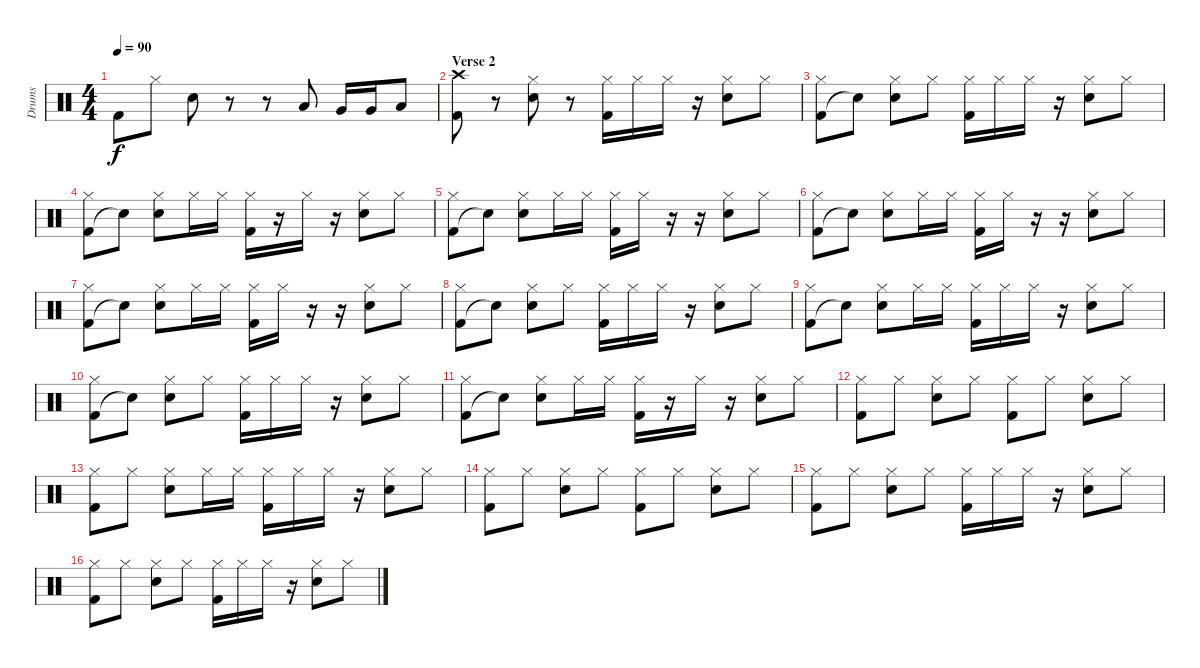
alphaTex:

\track ("Drums" "Drums") {instrument percussion}
\staff {score}
\articulation defaults
\ts (4 4)
\tempo 90
\clef neutral
\ks c "Kick (hit) 2".8{dy f} "Hi-Hat (closed)".8 "Snare (hit) 2".8
r.8 r.8 "Low Tom (hit)".8 "Very Low Tom (hit)".16 "Very Low Tom (hit)".16 "Low Floor Tom (hit)".8 |
\section ("" "Verse 2")
("Kick (hit) 2" "Crash high (hit)").8 r.8 ("Snare (hit) 2" "Hi-Hat (closed)").8 r.8 ("Kick (hit) 2" "Hi-Hat (closed)").16 "Hi-Hat (closed)".16 "Hi-Hat (closed)".16 r.16 ("Snare (hit) 2" "Hi-Hat (closed)").8 "Hi-Hat (closed)".8 |
("Kick (hit) 2" "Hi-Hat (closed)").8 "Snare (hit)"{t}.8 ("Snare (hit) 2" "Hi-Hat (closed)").8 "Hi-Hat (closed)".8 ("Kick (hit) 2" "Hi-Hat (closed)").16 "Hi-Hat (closed)".16 "Hi-Hat (closed)".16 r.16 ("Snare (hit) 2" "Hi-Hat (closed)").8 "Hi-Hat (closed)".8 |
("Kick (hit) 2" "Hi-Hat (closed)").8 "Snare (hit)"{t}.8 ("Snare (hit) 2" "Hi-Hat (closed)").8 "Hi-Hat (closed)".16 "Hi-Hat (closed)".16 ("Kick (hit) 2" "Hi-Hat (closed)").16 r.16 "Hi-Hat (closed)".16 r.16 ("Snare (hit) 2" "Hi-Hat (closed)").8 "Hi-Hat (closed)".8 |
("Kick (hit) 2" "Hi-Hat (closed)").8 "Snare (hit)"{t}.8 ("Snare (hit) 2" "Hi-Hat (closed)").8 "Hi-Hat (closed)".16 "Hi-Hat (closed)".16 ("Kick (hit) 2" "Hi-Hat (closed)").16 "Hi-Hat (closed)".16 r.16 r.16 ("Snare (hit) 2" "Hi-Hat (closed)").8 "Hi-Hat (closed)".8 |
("Kick (hit) 2" "Hi-Hat (closed)").8 "Snare (hit)"{t}.8 ("Snare (hit) 2" "Hi-Hat (closed)").8 "Hi-Hat (closed)".16 "Hi-Hat (closed)".16 ("Kick (hit) 2" "Hi-Hat (closed)").16 "Hi-Hat (closed)".16 r.16 r.16 ("Snare (hit) 2" "Hi-Hat (closed)").8 "Hi-Hat (closed)".8 |
("Kick (hit) 2" "Hi-Hat (closed)").8 "Snare (hit)"{t}.8 ("Snare (hit) 2" "Hi-Hat (closed)").8 "Hi-Hat (closed)".16 "Hi-Hat (closed)".16 ("Kick (hit) 2" "Hi-Hat (closed)").16 "Hi-Hat (closed)".16 r.16 r.16 ("Snare (hit) 2" "Hi-Hat (closed)").8 "Hi-Hat (closed)".8 |
("Kick (hit) 2" "Hi-Hat (closed)").8 "Snare (hit)"{t}.8 ("Snare (hit) 2" "Hi-Hat (closed)").8 "Hi-Hat (closed)".8 ("Kick (hit) 2" "Hi-Hat (closed)").16 "Hi-Hat (closed)".16 "Hi-Hat (closed)".16 r.16 ("Snare (hit) 2" "Hi-Hat (closed)").8 "Hi-Hat (closed)".8 |
("Kick (hit) 2" "Hi-Hat (closed)").8 "Snare (hit)"{t}.8 ("Snare (hit) 2" "Hi-Hat (closed)").8 "Hi-Hat (closed)".16 "Hi-Hat (closed)".16 ("Kick (hit) 2" "Hi-Hat (closed)").16 "Hi-Hat (closed)".16 "Hi-Hat (closed)".16 r.16 ("Snare (hit) 2" "Hi-Hat (closed)").8 "Hi-Hat (closed)".8 |
("Kick (hit) 2" "Hi-Hat (closed)").8 "Snare (hit)"{t}.8 ("Snare (hit) 2" "Hi-Hat (closed)").8 "Hi-Hat (closed)".8 ("Kick (hit) 2" "Hi-Hat (closed)").16 "Hi-Hat (closed)".16 "Hi-Hat (closed)".16 r.16 ("Snare (hit) 2" "Hi-Hat (closed)").8 "Hi-Hat (closed)".8 |
("Kick (hit) 2" "Hi-Hat (closed)").8 "Snare (hit)"{t}.8 ("Snare (hit) 2" "Hi-Hat (closed)").8 "Hi-Hat (closed)".16 "Hi-Hat (closed)".16 ("Kick (hit) 2" "Hi-Hat (closed)").16 r.16 "Hi-Hat (closed)".16 r.16 ("Snare (hit) 2" "Hi-Hat (closed)").8 "Hi-Hat (closed)".8 |
("Kick (hit) 2" "Hi-Hat (closed)").8 "Hi-Hat (closed)".8 ("Snare (hit) 2" "Hi-Hat (closed)").8 "Hi-Hat (closed)".8 ("Kick (hit) 2" "Hi-Hat (closed)").8 "Hi-Hat (closed)".8 ("Snare (hit) 2" "Hi-Hat (closed)").8 "Hi-Hat (closed)".8 |
("Kick (hit) 2" "Hi-Hat (closed)").8 "Hi-Hat (closed)".8 ("Snare (hit) 2" "Hi-Hat (closed)").8 "Hi-Hat (closed)".16 "Hi-Hat (closed)".16 ("Kick (hit) 2" "Hi-Hat (closed)").16 "Hi-Hat (closed)".16 "Hi-Hat (closed)".16 r.16 ("Snare (hit) 2" "Hi-Hat (closed)").8 "Hi-Hat (closed)".8 |
("Kick (hit) 2" "Hi-Hat (closed)").8 "Hi-Hat (closed)".8 ("Snare (hit) 2" "Hi-Hat (closed)").8 "Hi-Hat (closed)".8 ("Kick (hit) 2" "Hi-Hat (closed)").8 "Hi-Hat (closed)".8 ("Snare (hit) 2" "Hi-Hat (closed)").8 "Hi-Hat (closed)".8 |
("Kick (hit) 2" "Hi-Hat (closed)").8 "Hi-Hat (closed)".8 ("Snare (hit) 2" "Hi-Hat (closed)").8 "Hi-Hat (closed)".8 ("Kick (hit) 2" "Hi-Hat (closed)").16 "Hi-Hat (closed)".16 "Hi-Hat (closed)".16 r.16 ("Snare (hit) 2" "Hi-Hat (closed)").8 "Hi-Hat (closed)".8 |
("Kick (hit) 2" "Hi-Hat (closed)").8 "Hi-Hat (closed)".8 ("Snare (hit) 2" "Hi-Hat (closed)").8 "Hi-Hat (closed)".8 ("Kick (hit) 2" "Hi-Hat (closed)").16 "Hi-Hat (closed)".16 "Hi-Hat (closed)".16 r.16 ("Snare (hit) 2" "Hi-Hat (closed)").8 "Hi-Hat (closed)".8
